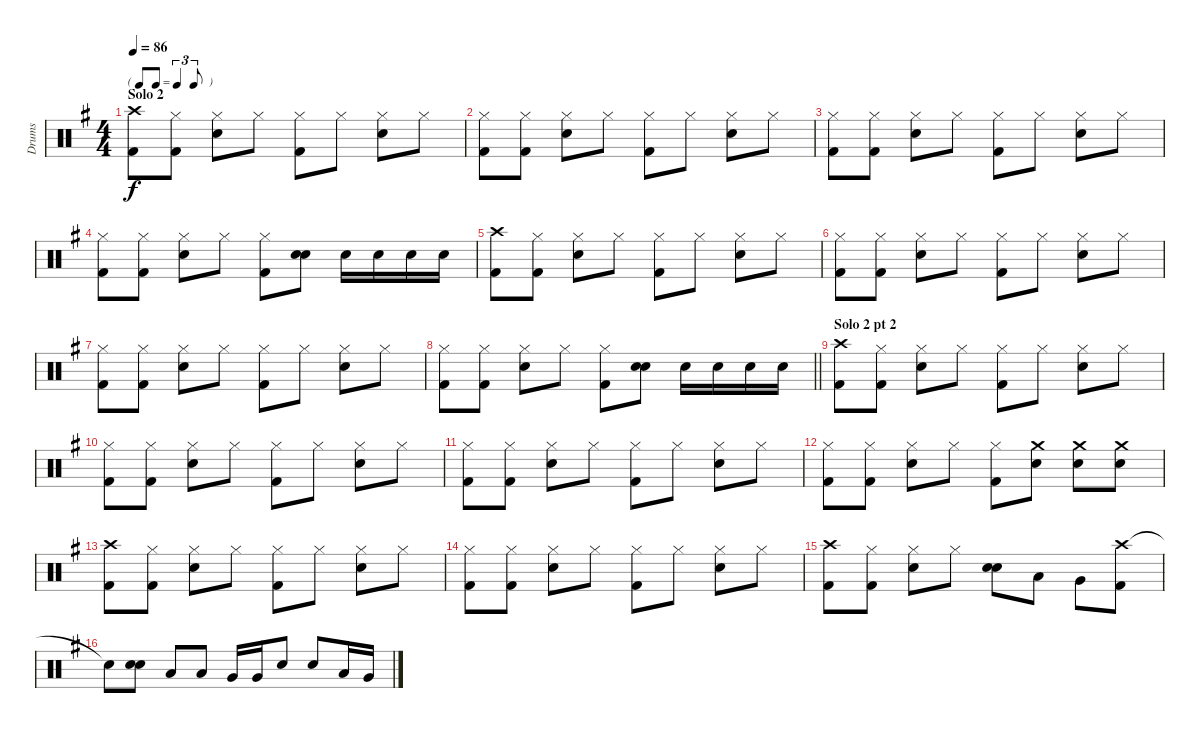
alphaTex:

\track ("Drums" "Drums") {instrument percussion}
\staff {score}
\articulation defaults
\ts (4 4)
\tf triplet8th
\section ("" "Solo 2")
\tempo 86
\clef neutral
\ks g
("Crash high (hit)" "Kick (hit) 2").8{dy f} ("Hi-Hat (closed)" "Kick (hit) 2").8 ("Hi-Hat (closed)" "Snare (hit) 2").8 "Hi-Hat (closed)".8 ("Hi-Hat (closed)" "Kick (hit) 2").8 "Hi-Hat (closed)".8 ("Hi-Hat (closed)" "Snare (hit) 2").8 "Hi-Hat (closed)".8 |
("Hi-Hat (closed)" "Kick (hit) 2").8 ("Hi-Hat (closed)" "Kick (hit) 2").8 ("Hi-Hat (closed)" "Snare (hit) 2").8 "Hi-Hat (closed)".8 ("Hi-Hat (closed)" "Kick (hit) 2").8 "Hi-Hat (closed)".8 ("Hi-Hat (closed)" "Snare (hit) 2").8 "Hi-Hat (closed)".8 |
("Hi-Hat (closed)" "Kick (hit) 2").8 ("Hi-Hat (closed)" "Kick (hit) 2").8 ("Hi-Hat (closed)" "Snare (hit) 2").8 "Hi-Hat (closed)".8 ("Hi-Hat (closed)" "Kick (hit) 2").8 "Hi-Hat (closed)".8 ("Hi-Hat (closed)" "Snare (hit) 2").8 "Hi-Hat (closed)".8 |
("Hi-Hat (closed)" "Kick (hit) 2").8 ("Hi-Hat (closed)" "Kick (hit) 2").8 ("Hi-Hat (closed)" "Snare (hit) 2").8 "Hi-Hat (closed)".8 ("Hi-Hat (closed)" "Kick (hit) 2").8 ("Snare (hit) 2" "Snare (hit) 2").8 "Snare (hit) 2".16 "Snare (hit) 2".16 "Snare (hit) 2".16 "Snare (hit) 2".16 |
("Crash high (hit)" "Kick (hit) 2").8 ("Hi-Hat (closed)" "Kick (hit) 2").8 ("Hi-Hat (closed)" "Snare (hit) 2").8 "Hi-Hat (closed)".8 ("Hi-Hat (closed)" "Kick (hit) 2").8 "Hi-Hat (closed)".8 ("Hi-Hat (closed)" "Snare (hit) 2").8 "Hi-Hat (closed)".8 |
("Hi-Hat (closed)" "Kick (hit) 2").8 ("Hi-Hat (closed)" "Kick (hit) 2").8 ("Hi-Hat (closed)" "Snare (hit) 2").8 "Hi-Hat (closed)".8 ("Hi-Hat (closed)" "Kick (hit) 2").8 "Hi-Hat (closed)".8 ("Hi-Hat (closed)" "Snare (hit) 2").8 "Hi-Hat (closed)".8 |
("Hi-Hat (closed)" "Kick (hit) 2").8 ("Hi-Hat (closed)" "Kick (hit) 2").8 ("Hi-Hat (closed)" "Snare (hit) 2").8 "Hi-Hat (closed)".8 ("Hi-Hat (closed)" "Kick (hit) 2").8 "Hi-Hat (closed)".8 ("Hi-Hat (closed)" "Snare (hit) 2").8 "Hi-Hat (closed)".8 |
\barLineRight lightlight
("Hi-Hat (closed)" "Kick (hit) 2").8 ("Hi-Hat (closed)" "Kick (hit) 2").8 ("Hi-Hat (closed)" "Snare (hit) 2").8 "Hi-Hat (closed)".8 ("Hi-Hat (closed)" "Kick (hit) 2").8 ("Snare (hit) 2" "Snare (hit) 2").8 "Snare (hit) 2".16 "Snare (hit) 2".16 "Snare (hit) 2".16 "Snare (hit) 2".16 |
\section ("" "Solo 2 pt 2")
("Crash high (hit)" "Kick (hit) 2").8 ("Hi-Hat (closed)" "Kick (hit) 2").8 ("Hi-Hat (closed)" "Snare (hit) 2").8 "Hi-Hat (closed)".8 ("Hi-Hat (closed)" "Kick (hit) 2").8 "Hi-Hat (closed)".8 ("Hi-Hat (closed)" "Snare (hit) 2").8 "Hi-Hat (closed)".8 |
("Hi-Hat (closed)" "Kick (hit) 2").8 ("Hi-Hat (closed)" "Kick (hit) 2").8 ("Hi-Hat (closed)" "Snare (hit) 2").8 "Hi-Hat (closed)".8 ("Hi-Hat (closed)" "Kick (hit) 2").8 "Hi-Hat (closed)".8 ("Hi-Hat (closed)" "Snare (hit) 2").8 "Hi-Hat (closed)".8 |
("Hi-Hat (closed)" "Kick (hit) 2").8 ("Hi-Hat (closed)" "Kick (hit) 2").8 ("Hi-Hat (closed)" "Snare (hit) 2").8 "Hi-Hat (closed)".8 ("Hi-Hat (closed)" "Kick (hit) 2").8 "Hi-Hat (closed)".8 ("Hi-Hat (closed)" "Snare (hit) 2").8 "Hi-Hat (closed)".8 |
("Hi-Hat (closed)" "Kick (hit) 2").8 ("Hi-Hat (closed)" "Kick (hit) 2").8 ("Hi-Hat (closed)" "Snare (hit) 2").8 "Hi-Hat (closed)".8 ("Hi-Hat (closed)" "Kick (hit) 2").8 ("Crash medium (hit)" "Snare (hit) 2").8 ("Crash medium (hit)" "Snare (hit) 2").8 ("Crash medium (hit)" "Snare (hit) 2").8 |
("Crash high (hit)" "Kick (hit) 2").8 ("Hi-Hat (closed)" "Kick (hit) 2").8 ("Hi-Hat (closed)" "Snare (hit) 2").8 "Hi-Hat (closed)".8 ("Hi-Hat (closed)" "Kick (hit) 2").8 "Hi-Hat (closed)".8 ("Hi-Hat (closed)" "Snare (hit) 2").8 "Hi-Hat (closed)".8 |
("Hi-Hat (closed)" "Kick (hit) 2").8 ("Hi-Hat (closed)" "Kick (hit) 2").8 ("Hi-Hat (closed)" "Snare (hit) 2").8 "Hi-Hat (closed)".8 ("Hi-Hat (closed)" "Kick (hit) 2").8 "Hi-Hat (closed)".8 ("Hi-Hat (closed)" "Snare (hit) 2").8 "Hi-Hat (closed)".8 |
("Crash high (hit)" "Kick (hit) 2").8 ("Hi-Hat (closed)" "Kick (hit) 2").8 ("Hi-Hat (closed)" "Snare (hit) 2").8 "Hi-Hat (closed)".8 ("Snare (hit) 2" "Snare (hit) 2").8 "Low Tom (hit)".8 "Very Low Tom (hit)".8 ("Crash high (hit)" "Kick (hit) 2").8 |
"Snare (hit)"{t}.8 ("Snare (hit) 2" "Snare (hit) 2").8 "Low Tom (hit)".8 "Low Tom (hit)".8 "Very Low Tom (hit)".16 "Very Low Tom (hit)".16 "Snare (hit) 2".8 "Snare (hit) 2".8 "Low Tom (hit)".16 "Very Low Tom (hit)".16
